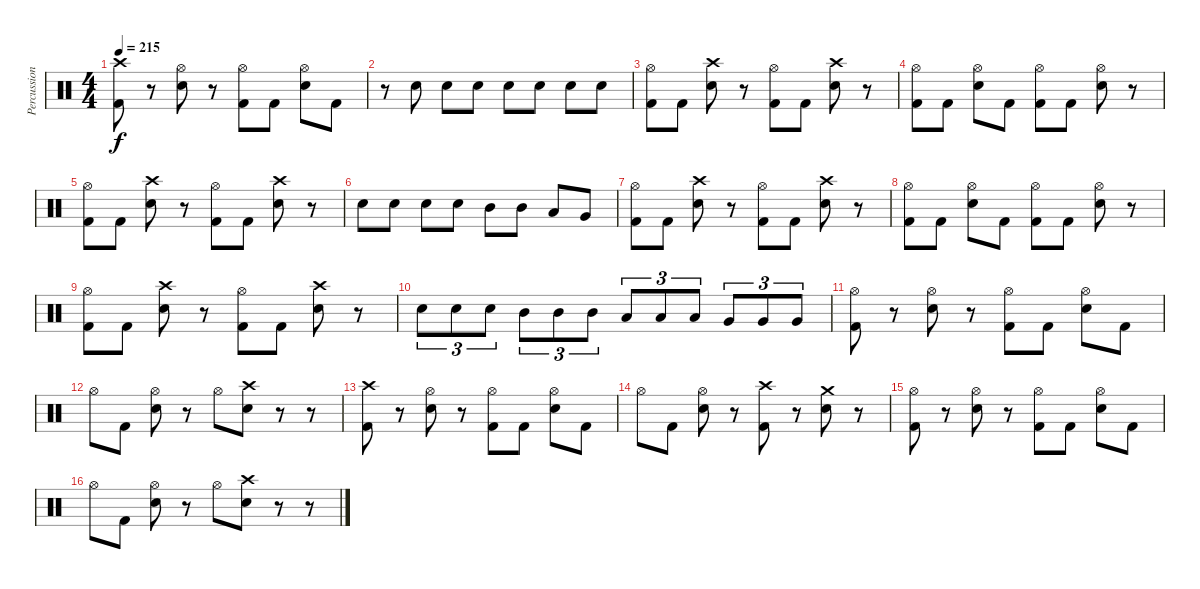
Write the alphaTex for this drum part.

\track ("Percussion" "Percussion") {instrument percussion}
\staff {score}
\articulation defaults
\ts (4 4)
\tempo 215
\clef neutral
\ks c
("Crash high (hit)" "Kick (hit) 2").8{dy f} r.8 ("Hi-Hat (open)" "Snare (hit) 2").8 r.8 ("Hi-Hat (open)" "Kick (hit) 2").8 "Kick (hit) 2".8 ("Hi-Hat (open)" "Snare (hit) 2").8 "Kick (hit) 2".8 |
r.8 "Snare (hit) 2".8 "Snare (hit) 2".8 "Snare (hit) 2".8 "Snare (hit) 2".8 "Snare (hit) 2".8 "Snare (hit) 2".8 "Snare (hit) 2".8 |
("Hi-Hat (open)" "Kick (hit) 2").8 "Kick (hit) 2".8 ("Crash high (hit)" "Snare (hit) 2").8 r.8 ("Hi-Hat (open)" "Kick (hit) 2").8 "Kick (hit) 2".8 ("Crash high (hit)" "Snare (hit) 2").8 r.8 |
("Hi-Hat (open)" "Kick (hit) 2").8 "Kick (hit) 2".8 ("Hi-Hat (open)" "Snare (hit) 2").8 "Kick (hit) 2".8 ("Hi-Hat (open)" "Kick (hit) 2").8 "Kick (hit) 2".8 ("Hi-Hat (open)" "Snare (hit) 2").8 r.8 |
("Hi-Hat (open)" "Kick (hit) 2").8 "Kick (hit) 2".8 ("Crash high (hit)" "Snare (hit) 2").8 r.8 ("Hi-Hat (open)" "Kick (hit) 2").8 "Kick (hit) 2".8 ("Crash high (hit)" "Snare (hit) 2").8 r.8 |
"Snare (hit) 2".8 "Snare (hit) 2".8 "Snare (hit) 2".8 "Snare (hit) 2".8 "Mid Tom (hit)".8 "Mid Tom (hit)".8 "Low Tom (hit)".8 "Very Low Tom (hit)".8 |
("Hi-Hat (open)" "Kick (hit) 2").8 "Kick (hit) 2".8 ("Crash high (hit)" "Snare (hit) 2").8 r.8 ("Hi-Hat (open)" "Kick (hit) 2").8 "Kick (hit) 2".8 ("Crash high (hit)" "Snare (hit) 2").8 r.8 |
("Hi-Hat (open)" "Kick (hit) 2").8 "Kick (hit) 2".8 ("Hi-Hat (open)" "Snare (hit) 2").8 "Kick (hit) 2".8 ("Hi-Hat (open)" "Kick (hit) 2").8 "Kick (hit) 2".8 ("Hi-Hat (open)" "Snare (hit) 2").8 r.8 |
("Hi-Hat (open)" "Kick (hit) 2").8 "Kick (hit) 2".8 ("Crash high (hit)" "Snare (hit) 2").8 r.8 ("Hi-Hat (open)" "Kick (hit) 2").8 "Kick (hit) 2".8 ("Crash high (hit)" "Snare (hit) 2").8 r.8 |
"Snare (hit) 2".8{tu (3 2)} "Snare (hit) 2".8{tu (3 2)} "Snare (hit) 2".8{tu (3 2)} "Mid Tom (hit)".8{tu (3 2)} "Mid Tom (hit)".8{tu (3 2)} "Mid Tom (hit)".8{tu (3 2)} "Low Tom (hit)".8{tu (3 2)} "Low Tom (hit)".8{tu (3 2)} "Low Tom (hit)".8{tu (3 2)} "Very Low Tom (hit)".8{tu (3 2)} "Very Low Tom (hit)".8{tu (3 2)} "Very Low Tom (hit)".8{tu (3 2)} |
("Hi-Hat (open)" "Kick (hit) 2").8 r.8 ("Hi-Hat (open)" "Snare (hit) 2").8 r.8 ("Hi-Hat (open)" "Kick (hit) 2").8 "Kick (hit) 2".8 ("Hi-Hat (open)" "Snare (hit) 2").8 "Kick (hit) 2".8 |
"Hi-Hat (open)".8 "Kick (hit) 2".8 ("Hi-Hat (open)" "Snare (hit) 2").8 r.8 "Hi-Hat (open)".8 ("Crash high (hit)" "Snare (hit) 2").8 r.8 r.8 |
("Crash high (hit)" "Kick (hit) 2").8 r.8 ("Hi-Hat (open)" "Snare (hit) 2").8 r.8 ("Hi-Hat (open)" "Kick (hit) 2").8 "Kick (hit) 2".8 ("Hi-Hat (open)" "Snare (hit) 2").8 "Kick (hit) 2".8 |
"Hi-Hat (open)".8 "Kick (hit) 2".8 ("Hi-Hat (open)" "Snare (hit) 2").8 r.8 ("Crash high (hit)" "Kick (hit) 2").8 r.8 ("Crash medium (hit)" "Snare (hit) 2").8 r.8 |
("Hi-Hat (open)" "Kick (hit) 2").8 r.8 ("Hi-Hat (open)" "Snare (hit) 2").8 r.8 ("Hi-Hat (open)" "Kick (hit) 2").8 "Kick (hit) 2".8 ("Hi-Hat (open)" "Snare (hit) 2").8 "Kick (hit) 2".8 |
"Hi-Hat (open)".8 "Kick (hit) 2".8 ("Hi-Hat (open)" "Snare (hit) 2").8 r.8 "Hi-Hat (open)".8 ("Crash high (hit)" "Snare (hit) 2").8 r.8 r.8
